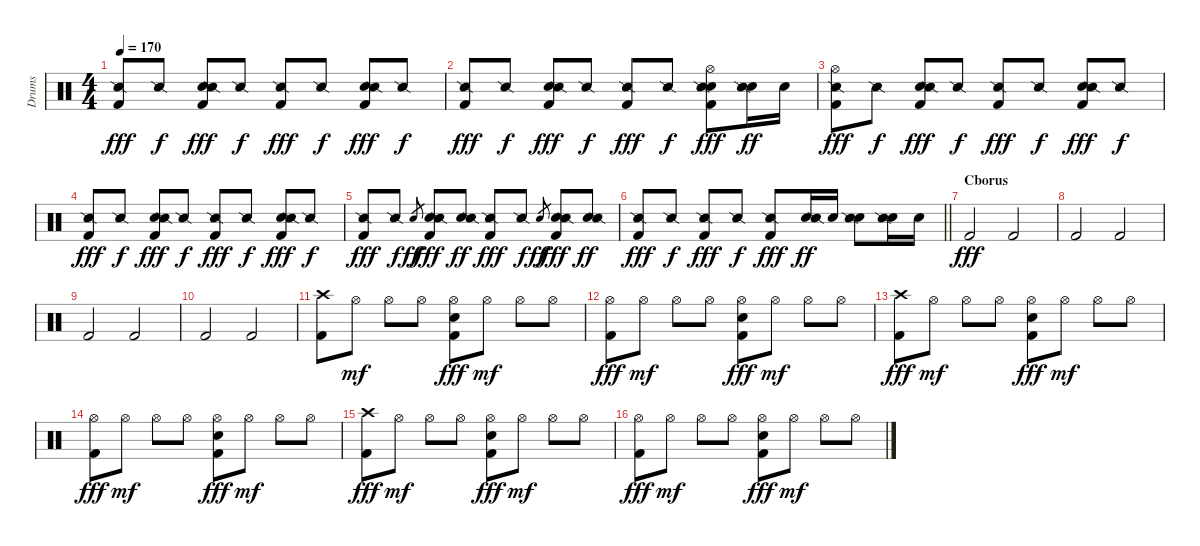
\track ("Drums" "Drums") {instrument percussion}
\staff {score}
\articulation defaults
\ts (4 4)
\tempo 170
\clef neutral
\ks c
("Kick (hit) 2" "Snare (side stick) 2").8{dy fff} "Snare (side stick) 2".8{dy f} ("Snare (hit) 2" "Kick (hit) 2" "Snare (side stick) 2").8{dy fff} "Snare (side stick) 2".8{dy f} ("Kick (hit) 2" "Snare (side stick) 2").8{dy fff} "Snare (side stick) 2".8{dy f} ("Snare (hit) 2" "Kick (hit) 2" "Snare (side stick) 2").8{dy fff} "Snare (side stick) 2".8{dy f} |
("Kick (hit) 2" "Snare (side stick) 2").8{dy fff} "Snare (side stick) 2".8{dy f} ("Snare (hit) 2" "Kick (hit) 2" "Snare (side stick) 2").8{dy fff} "Snare (side stick) 2".8{dy f} ("Kick (hit) 2" "Snare (side stick) 2").8{dy fff} "Snare (side stick) 2".8{dy f} ("Hi-Hat (open)" "Snare (hit) 2" "Kick (hit) 2" "Snare (side stick) 2").8{dy fff} ("Snare (hit) 2" "Snare (side stick) 2").16{dy ff} "Snare (hit) 2".16 |
("Hi-Hat (open)" "Kick (hit) 2" "Snare (side stick) 2").8{dy fff} "Snare (side stick) 2".8{dy f} ("Snare (hit) 2" "Kick (hit) 2" "Snare (side stick) 2").8{dy fff} "Snare (side stick) 2".8{dy f} ("Kick (hit) 2" "Snare (side stick) 2").8{dy fff} "Snare (side stick) 2".8{dy f} ("Snare (hit) 2" "Kick (hit) 2" "Snare (side stick) 2").8{dy fff} "Snare (side stick) 2".8{dy f} |
("Kick (hit) 2" "Snare (side stick) 2").8{dy fff} "Snare (side stick) 2".8{dy f} ("Snare (hit) 2" "Kick (hit) 2" "Snare (side stick) 2").8{dy fff} "Snare (side stick) 2".8{dy f} ("Kick (hit) 2" "Snare (side stick) 2").8{dy fff} "Snare (side stick) 2".8{dy f} ("Snare (hit) 2" "Kick (hit) 2" "Snare (side stick) 2").8{dy fff} "Snare (side stick) 2".8{dy f} |
("Kick (hit) 2" "Snare (side stick) 2").8{dy fff} "Snare (side stick) 2".8{dy f} "Snare (hit) 2".8{gr dy ff} ("Snare (hit) 2" "Kick (hit) 2" "Snare (side stick) 2").8{dy fff} ("Snare (hit) 2" "Snare (side stick) 2").8{dy ff} ("Kick (hit) 2" "Snare (side stick) 2").8{dy fff} "Snare (side stick) 2".8{dy f} "Snare (hit) 2".8{gr dy ff} ("Snare (hit) 2" "Kick (hit) 2" "Snare (side stick) 2").8{dy fff} ("Snare (hit) 2" "Snare (side stick) 2").8{dy ff} |
\barLineRight lightlight
("Kick (hit) 2" "Snare (side stick) 2").8{dy fff} "Snare (side stick) 2".8{dy f} ("Kick (hit) 2" "Snare (side stick) 2").8{dy fff} "Snare (side stick) 2".8{dy f} ("Kick (hit) 2" "Snare (side stick) 2").8{dy fff} ("Snare (hit) 2" "Snare (side stick) 2").16{dy ff} "Snare (hit) 2".16 ("Snare (hit) 2" "Snare (side stick) 2").8 ("Snare (hit) 2" "Snare (side stick) 2").16 "Snare (hit) 2".16 |
\section ("" "Cborus")
"Kick (hit) 2".2{dy fff} "Kick (hit) 2".2 |
"Kick (hit) 2".2 "Kick (hit) 2".2 |
"Kick (hit) 2".2 "Kick (hit) 2".2 |
"Kick (hit) 2".2 "Kick (hit) 2".2 |
("Crash high (hit)" "Kick (hit) 2").8 "Hi-Hat (open)".8{dy mf} "Hi-Hat (open)".8 "Hi-Hat (open)".8 ("Hi-Hat (open)" "Snare (hit) 2" "Kick (hit) 2").8{dy fff} "Hi-Hat (open)".8{dy mf} "Hi-Hat (open)".8 "Hi-Hat (open)".8 |
("Hi-Hat (open)" "Kick (hit) 2").8{dy fff} "Hi-Hat (open)".8{dy mf} "Hi-Hat (open)".8 "Hi-Hat (open)".8 ("Hi-Hat (open)" "Snare (hit) 2" "Kick (hit) 2").8{dy fff} "Hi-Hat (open)".8{dy mf} "Hi-Hat (open)".8 "Hi-Hat (open)".8 |
("Crash high (hit)" "Kick (hit) 2").8{dy fff} "Hi-Hat (open)".8{dy mf} "Hi-Hat (open)".8 "Hi-Hat (open)".8 ("Hi-Hat (open)" "Snare (hit) 2" "Kick (hit) 2").8{dy fff} "Hi-Hat (open)".8{dy mf} "Hi-Hat (open)".8 "Hi-Hat (open)".8 |
("Hi-Hat (open)" "Kick (hit) 2").8{dy fff} "Hi-Hat (open)".8{dy mf} "Hi-Hat (open)".8 "Hi-Hat (open)".8 ("Hi-Hat (open)" "Snare (hit) 2" "Kick (hit) 2").8{dy fff} "Hi-Hat (open)".8{dy mf} "Hi-Hat (open)".8 "Hi-Hat (open)".8 |
("Crash high (hit)" "Kick (hit) 2").8{dy fff} "Hi-Hat (open)".8{dy mf} "Hi-Hat (open)".8 "Hi-Hat (open)".8 ("Hi-Hat (open)" "Snare (hit) 2" "Kick (hit) 2").8{dy fff} "Hi-Hat (open)".8{dy mf} "Hi-Hat (open)".8 "Hi-Hat (open)".8 |
("Hi-Hat (open)" "Kick (hit) 2").8{dy fff} "Hi-Hat (open)".8{dy mf} "Hi-Hat (open)".8 "Hi-Hat (open)".8 ("Hi-Hat (open)" "Snare (hit) 2" "Kick (hit) 2").8{dy fff} "Hi-Hat (open)".8{dy mf} "Hi-Hat (open)".8 "Hi-Hat (open)".8
